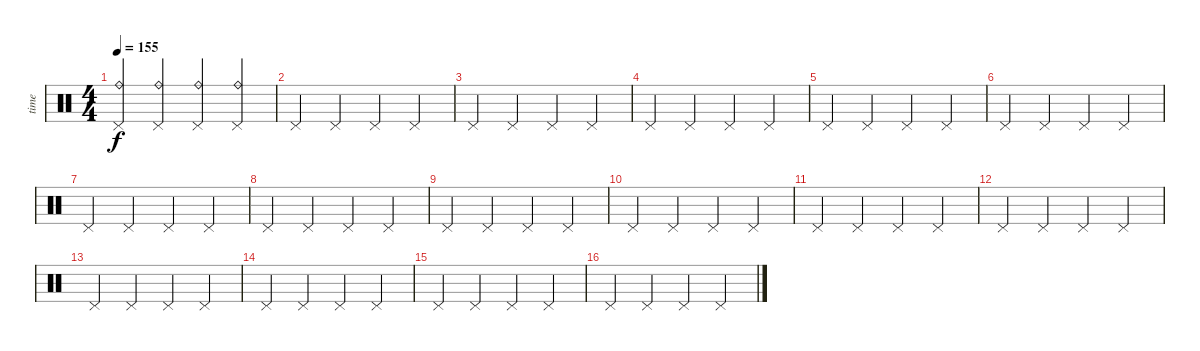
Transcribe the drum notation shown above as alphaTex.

\track ("time" "time") {instrument percussion}
\staff {score}
\articulation defaults
\ts (4 4)
\tempo 155
\clef neutral
\ks c
("Pedal Hi-Hat (hit)" "Ride (bell)").4{dy f} ("Pedal Hi-Hat (hit)" "Ride (bell)").4 ("Pedal Hi-Hat (hit)" "Ride (bell)").4 ("Pedal Hi-Hat (hit)" "Ride (bell)").4 |
"Pedal Hi-Hat (hit)".4 "Pedal Hi-Hat (hit)".4 "Pedal Hi-Hat (hit)".4 "Pedal Hi-Hat (hit)".4 |
"Pedal Hi-Hat (hit)".4 "Pedal Hi-Hat (hit)".4 "Pedal Hi-Hat (hit)".4 "Pedal Hi-Hat (hit)".4 |
"Pedal Hi-Hat (hit)".4 "Pedal Hi-Hat (hit)".4 "Pedal Hi-Hat (hit)".4 "Pedal Hi-Hat (hit)".4 |
"Pedal Hi-Hat (hit)".4 "Pedal Hi-Hat (hit)".4 "Pedal Hi-Hat (hit)".4 "Pedal Hi-Hat (hit)".4 |
"Pedal Hi-Hat (hit)".4 "Pedal Hi-Hat (hit)".4 "Pedal Hi-Hat (hit)".4 "Pedal Hi-Hat (hit)".4 |
"Pedal Hi-Hat (hit)".4 "Pedal Hi-Hat (hit)".4 "Pedal Hi-Hat (hit)".4 "Pedal Hi-Hat (hit)".4 |
"Pedal Hi-Hat (hit)".4 "Pedal Hi-Hat (hit)".4 "Pedal Hi-Hat (hit)".4 "Pedal Hi-Hat (hit)".4 |
"Pedal Hi-Hat (hit)".4 "Pedal Hi-Hat (hit)".4 "Pedal Hi-Hat (hit)".4 "Pedal Hi-Hat (hit)".4 |
"Pedal Hi-Hat (hit)".4 "Pedal Hi-Hat (hit)".4 "Pedal Hi-Hat (hit)".4 "Pedal Hi-Hat (hit)".4 |
"Pedal Hi-Hat (hit)".4 "Pedal Hi-Hat (hit)".4 "Pedal Hi-Hat (hit)".4 "Pedal Hi-Hat (hit)".4 |
"Pedal Hi-Hat (hit)".4 "Pedal Hi-Hat (hit)".4 "Pedal Hi-Hat (hit)".4 "Pedal Hi-Hat (hit)".4 |
"Pedal Hi-Hat (hit)".4 "Pedal Hi-Hat (hit)".4 "Pedal Hi-Hat (hit)".4 "Pedal Hi-Hat (hit)".4 |
"Pedal Hi-Hat (hit)".4 "Pedal Hi-Hat (hit)".4 "Pedal Hi-Hat (hit)".4 "Pedal Hi-Hat (hit)".4 |
"Pedal Hi-Hat (hit)".4 "Pedal Hi-Hat (hit)".4 "Pedal Hi-Hat (hit)".4 "Pedal Hi-Hat (hit)".4 |
"Pedal Hi-Hat (hit)".4 "Pedal Hi-Hat (hit)".4 "Pedal Hi-Hat (hit)".4 "Pedal Hi-Hat (hit)".4
